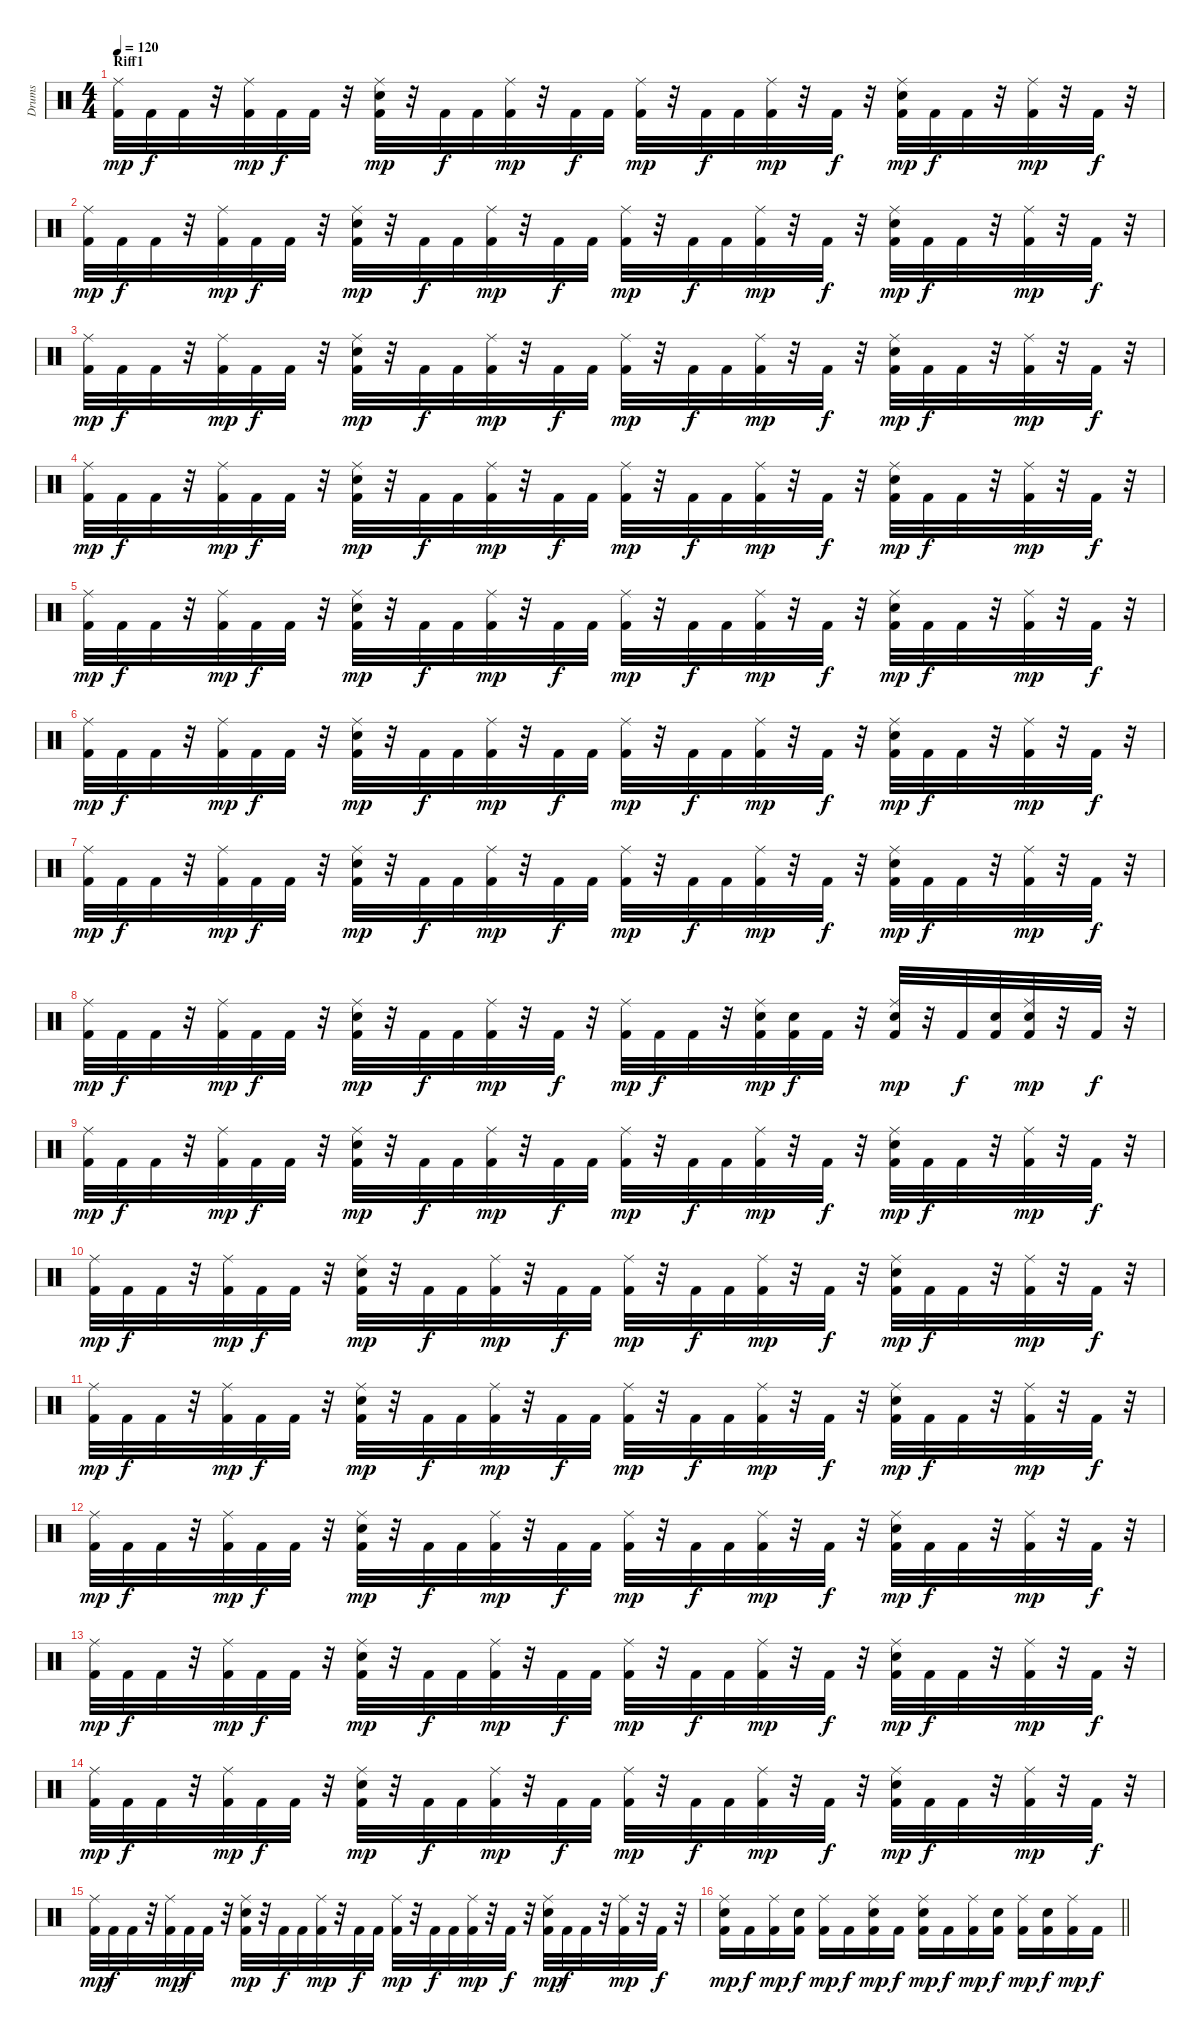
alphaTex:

\track ("Drums" "Drums") {instrument percussion}
\staff {score}
\articulation defaults
\ts (4 4)
\section ("" "Riff1")
\tempo 120
\clef neutral
\ks c
("Kick (hit) 2" "Ride (middle)").32{dy mp} "Kick (hit) 2".32{dy f} "Kick (hit) 2".32 r.32 ("Kick (hit) 2" "Ride (middle)").32{dy mp} "Kick (hit) 2".32{dy f} "Kick (hit) 2".32 r.32 ("Kick (hit) 2" "Ride (middle)" "Snare (hit) 2").32{dy mp} r.32 "Kick (hit) 2".32{dy f} "Kick (hit) 2".32 ("Kick (hit) 2" "Ride (middle)").32{dy mp} r.32 "Kick (hit) 2".32{dy f} "Kick (hit) 2".32 ("Kick (hit) 2" "Ride (middle)").32{dy mp} r.32 "Kick (hit) 2".32{dy f} "Kick (hit) 2".32 ("Kick (hit) 2" "Ride (middle)").32{dy mp} r.32 "Kick (hit) 2".32{dy f} r.32 ("Kick (hit) 2" "Ride (middle)" "Snare (hit) 2").32{dy mp} "Kick (hit) 2".32{dy f} "Kick (hit) 2".32 r.32 ("Kick (hit) 2" "Ride (middle)").32{dy mp} r.32 "Kick (hit) 2".32{dy f} r.32 |
("Kick (hit) 2" "Ride (middle)").32{dy mp} "Kick (hit) 2".32{dy f} "Kick (hit) 2".32 r.32 ("Kick (hit) 2" "Ride (middle)").32{dy mp} "Kick (hit) 2".32{dy f} "Kick (hit) 2".32 r.32 ("Kick (hit) 2" "Ride (middle)" "Snare (hit) 2").32{dy mp} r.32 "Kick (hit) 2".32{dy f} "Kick (hit) 2".32 ("Kick (hit) 2" "Ride (middle)").32{dy mp} r.32 "Kick (hit) 2".32{dy f} "Kick (hit) 2".32 ("Kick (hit) 2" "Ride (middle)").32{dy mp} r.32 "Kick (hit) 2".32{dy f} "Kick (hit) 2".32 ("Kick (hit) 2" "Ride (middle)").32{dy mp} r.32 "Kick (hit) 2".32{dy f} r.32 ("Kick (hit) 2" "Ride (middle)" "Snare (hit) 2").32{dy mp} "Kick (hit) 2".32{dy f} "Kick (hit) 2".32 r.32 ("Kick (hit) 2" "Ride (middle)").32{dy mp} r.32 "Kick (hit) 2".32{dy f} r.32 |
("Kick (hit) 2" "Ride (middle)").32{dy mp} "Kick (hit) 2".32{dy f} "Kick (hit) 2".32 r.32 ("Kick (hit) 2" "Ride (middle)").32{dy mp} "Kick (hit) 2".32{dy f} "Kick (hit) 2".32 r.32 ("Kick (hit) 2" "Ride (middle)" "Snare (hit) 2").32{dy mp} r.32 "Kick (hit) 2".32{dy f} "Kick (hit) 2".32 ("Kick (hit) 2" "Ride (middle)").32{dy mp} r.32 "Kick (hit) 2".32{dy f} "Kick (hit) 2".32 ("Kick (hit) 2" "Ride (middle)").32{dy mp} r.32 "Kick (hit) 2".32{dy f} "Kick (hit) 2".32 ("Kick (hit) 2" "Ride (middle)").32{dy mp} r.32 "Kick (hit) 2".32{dy f} r.32 ("Kick (hit) 2" "Ride (middle)" "Snare (hit) 2").32{dy mp} "Kick (hit) 2".32{dy f} "Kick (hit) 2".32 r.32 ("Kick (hit) 2" "Ride (middle)").32{dy mp} r.32 "Kick (hit) 2".32{dy f} r.32 |
("Kick (hit) 2" "Ride (middle)").32{dy mp} "Kick (hit) 2".32{dy f} "Kick (hit) 2".32 r.32 ("Kick (hit) 2" "Ride (middle)").32{dy mp} "Kick (hit) 2".32{dy f} "Kick (hit) 2".32 r.32 ("Kick (hit) 2" "Ride (middle)" "Snare (hit) 2").32{dy mp} r.32 "Kick (hit) 2".32{dy f} "Kick (hit) 2".32 ("Kick (hit) 2" "Ride (middle)").32{dy mp} r.32 "Kick (hit) 2".32{dy f} "Kick (hit) 2".32 ("Kick (hit) 2" "Ride (middle)").32{dy mp} r.32 "Kick (hit) 2".32{dy f} "Kick (hit) 2".32 ("Kick (hit) 2" "Ride (middle)").32{dy mp} r.32 "Kick (hit) 2".32{dy f} r.32 ("Kick (hit) 2" "Ride (middle)" "Snare (hit) 2").32{dy mp} "Kick (hit) 2".32{dy f} "Kick (hit) 2".32 r.32 ("Kick (hit) 2" "Ride (middle)").32{dy mp} r.32 "Kick (hit) 2".32{dy f} r.32 |
("Kick (hit) 2" "Ride (middle)").32{dy mp} "Kick (hit) 2".32{dy f} "Kick (hit) 2".32 r.32 ("Kick (hit) 2" "Ride (middle)").32{dy mp} "Kick (hit) 2".32{dy f} "Kick (hit) 2".32 r.32 ("Kick (hit) 2" "Ride (middle)" "Snare (hit) 2").32{dy mp} r.32 "Kick (hit) 2".32{dy f} "Kick (hit) 2".32 ("Kick (hit) 2" "Ride (middle)").32{dy mp} r.32 "Kick (hit) 2".32{dy f} "Kick (hit) 2".32 ("Kick (hit) 2" "Ride (middle)").32{dy mp} r.32 "Kick (hit) 2".32{dy f} "Kick (hit) 2".32 ("Kick (hit) 2" "Ride (middle)").32{dy mp} r.32 "Kick (hit) 2".32{dy f} r.32 ("Kick (hit) 2" "Ride (middle)" "Snare (hit) 2").32{dy mp} "Kick (hit) 2".32{dy f} "Kick (hit) 2".32 r.32 ("Kick (hit) 2" "Ride (middle)").32{dy mp} r.32 "Kick (hit) 2".32{dy f} r.32 |
("Kick (hit) 2" "Ride (middle)").32{dy mp} "Kick (hit) 2".32{dy f} "Kick (hit) 2".32 r.32 ("Kick (hit) 2" "Ride (middle)").32{dy mp} "Kick (hit) 2".32{dy f} "Kick (hit) 2".32 r.32 ("Kick (hit) 2" "Ride (middle)" "Snare (hit) 2").32{dy mp} r.32 "Kick (hit) 2".32{dy f} "Kick (hit) 2".32 ("Kick (hit) 2" "Ride (middle)").32{dy mp} r.32 "Kick (hit) 2".32{dy f} "Kick (hit) 2".32 ("Kick (hit) 2" "Ride (middle)").32{dy mp} r.32 "Kick (hit) 2".32{dy f} "Kick (hit) 2".32 ("Kick (hit) 2" "Ride (middle)").32{dy mp} r.32 "Kick (hit) 2".32{dy f} r.32 ("Kick (hit) 2" "Ride (middle)" "Snare (hit) 2").32{dy mp} "Kick (hit) 2".32{dy f} "Kick (hit) 2".32 r.32 ("Kick (hit) 2" "Ride (middle)").32{dy mp} r.32 "Kick (hit) 2".32{dy f} r.32 |
("Kick (hit) 2" "Ride (middle)").32{dy mp} "Kick (hit) 2".32{dy f} "Kick (hit) 2".32 r.32 ("Kick (hit) 2" "Ride (middle)").32{dy mp} "Kick (hit) 2".32{dy f} "Kick (hit) 2".32 r.32 ("Kick (hit) 2" "Ride (middle)" "Snare (hit) 2").32{dy mp} r.32 "Kick (hit) 2".32{dy f} "Kick (hit) 2".32 ("Kick (hit) 2" "Ride (middle)").32{dy mp} r.32 "Kick (hit) 2".32{dy f} "Kick (hit) 2".32 ("Kick (hit) 2" "Ride (middle)").32{dy mp} r.32 "Kick (hit) 2".32{dy f} "Kick (hit) 2".32 ("Kick (hit) 2" "Ride (middle)").32{dy mp} r.32 "Kick (hit) 2".32{dy f} r.32 ("Kick (hit) 2" "Ride (middle)" "Snare (hit) 2").32{dy mp} "Kick (hit) 2".32{dy f} "Kick (hit) 2".32 r.32 ("Kick (hit) 2" "Ride (middle)").32{dy mp} r.32 "Kick (hit) 2".32{dy f} r.32 |
("Kick (hit) 2" "Ride (middle)").32{dy mp} "Kick (hit) 2".32{dy f} "Kick (hit) 2".32 r.32 ("Kick (hit) 2" "Ride (middle)").32{dy mp} "Kick (hit) 2".32{dy f} "Kick (hit) 2".32 r.32 ("Kick (hit) 2" "Ride (middle)" "Snare (hit) 2").32{dy mp} r.32 "Kick (hit) 2".32{dy f} "Kick (hit) 2".32 ("Kick (hit) 2" "Ride (middle)").32{dy mp} r.32 "Kick (hit) 2".32{dy f} r.32 ("Kick (hit) 2" "Ride (middle)").32{dy mp} "Kick (hit) 2".32{dy f} "Kick (hit) 2".32 r.32 ("Kick (hit) 2" "Ride (middle)" "Snare (hit) 2").32{dy mp} ("Kick (hit) 2" "Snare (hit) 2").32{dy f} "Kick (hit) 2".32 r.32 ("Kick (hit) 2" "Ride (middle)" "Snare (hit) 2").32{dy mp} r.32 "Kick (hit) 2".32{dy f} ("Kick (hit) 2" "Snare (hit) 2").32 ("Kick (hit) 2" "Ride (middle)" "Snare (hit) 2").32{dy mp} r.32 "Kick (hit) 2".32{dy f} r.32 |
("Kick (hit) 2" "Ride (middle)").32{dy mp} "Kick (hit) 2".32{dy f} "Kick (hit) 2".32 r.32 ("Kick (hit) 2" "Ride (middle)").32{dy mp} "Kick (hit) 2".32{dy f} "Kick (hit) 2".32 r.32 ("Kick (hit) 2" "Ride (middle)" "Snare (hit) 2").32{dy mp} r.32 "Kick (hit) 2".32{dy f} "Kick (hit) 2".32 ("Kick (hit) 2" "Ride (middle)").32{dy mp} r.32 "Kick (hit) 2".32{dy f} "Kick (hit) 2".32 ("Kick (hit) 2" "Ride (middle)").32{dy mp} r.32 "Kick (hit) 2".32{dy f} "Kick (hit) 2".32 ("Kick (hit) 2" "Ride (middle)").32{dy mp} r.32 "Kick (hit) 2".32{dy f} r.32 ("Kick (hit) 2" "Ride (middle)" "Snare (hit) 2").32{dy mp} "Kick (hit) 2".32{dy f} "Kick (hit) 2".32 r.32 ("Kick (hit) 2" "Ride (middle)").32{dy mp} r.32 "Kick (hit) 2".32{dy f} r.32 |
("Kick (hit) 2" "Ride (middle)").32{dy mp} "Kick (hit) 2".32{dy f} "Kick (hit) 2".32 r.32 ("Kick (hit) 2" "Ride (middle)").32{dy mp} "Kick (hit) 2".32{dy f} "Kick (hit) 2".32 r.32 ("Kick (hit) 2" "Ride (middle)" "Snare (hit) 2").32{dy mp} r.32 "Kick (hit) 2".32{dy f} "Kick (hit) 2".32 ("Kick (hit) 2" "Ride (middle)").32{dy mp} r.32 "Kick (hit) 2".32{dy f} "Kick (hit) 2".32 ("Kick (hit) 2" "Ride (middle)").32{dy mp} r.32 "Kick (hit) 2".32{dy f} "Kick (hit) 2".32 ("Kick (hit) 2" "Ride (middle)").32{dy mp} r.32 "Kick (hit) 2".32{dy f} r.32 ("Kick (hit) 2" "Ride (middle)" "Snare (hit) 2").32{dy mp} "Kick (hit) 2".32{dy f} "Kick (hit) 2".32 r.32 ("Kick (hit) 2" "Ride (middle)").32{dy mp} r.32 "Kick (hit) 2".32{dy f} r.32 |
("Kick (hit) 2" "Ride (middle)").32{dy mp} "Kick (hit) 2".32{dy f} "Kick (hit) 2".32 r.32 ("Kick (hit) 2" "Ride (middle)").32{dy mp} "Kick (hit) 2".32{dy f} "Kick (hit) 2".32 r.32 ("Kick (hit) 2" "Ride (middle)" "Snare (hit) 2").32{dy mp} r.32 "Kick (hit) 2".32{dy f} "Kick (hit) 2".32 ("Kick (hit) 2" "Ride (middle)").32{dy mp} r.32 "Kick (hit) 2".32{dy f} "Kick (hit) 2".32 ("Kick (hit) 2" "Ride (middle)").32{dy mp} r.32 "Kick (hit) 2".32{dy f} "Kick (hit) 2".32 ("Kick (hit) 2" "Ride (middle)").32{dy mp} r.32 "Kick (hit) 2".32{dy f} r.32 ("Kick (hit) 2" "Ride (middle)" "Snare (hit) 2").32{dy mp} "Kick (hit) 2".32{dy f} "Kick (hit) 2".32 r.32 ("Kick (hit) 2" "Ride (middle)").32{dy mp} r.32 "Kick (hit) 2".32{dy f} r.32 |
("Kick (hit) 2" "Ride (middle)").32{dy mp} "Kick (hit) 2".32{dy f} "Kick (hit) 2".32 r.32 ("Kick (hit) 2" "Ride (middle)").32{dy mp} "Kick (hit) 2".32{dy f} "Kick (hit) 2".32 r.32 ("Kick (hit) 2" "Ride (middle)" "Snare (hit) 2").32{dy mp} r.32 "Kick (hit) 2".32{dy f} "Kick (hit) 2".32 ("Kick (hit) 2" "Ride (middle)").32{dy mp} r.32 "Kick (hit) 2".32{dy f} "Kick (hit) 2".32 ("Kick (hit) 2" "Ride (middle)").32{dy mp} r.32 "Kick (hit) 2".32{dy f} "Kick (hit) 2".32 ("Kick (hit) 2" "Ride (middle)").32{dy mp} r.32 "Kick (hit) 2".32{dy f} r.32 ("Kick (hit) 2" "Ride (middle)" "Snare (hit) 2").32{dy mp} "Kick (hit) 2".32{dy f} "Kick (hit) 2".32 r.32 ("Kick (hit) 2" "Ride (middle)").32{dy mp} r.32 "Kick (hit) 2".32{dy f} r.32 |
("Kick (hit) 2" "Ride (middle)").32{dy mp} "Kick (hit) 2".32{dy f} "Kick (hit) 2".32 r.32 ("Kick (hit) 2" "Ride (middle)").32{dy mp} "Kick (hit) 2".32{dy f} "Kick (hit) 2".32 r.32 ("Kick (hit) 2" "Ride (middle)" "Snare (hit) 2").32{dy mp} r.32 "Kick (hit) 2".32{dy f} "Kick (hit) 2".32 ("Kick (hit) 2" "Ride (middle)").32{dy mp} r.32 "Kick (hit) 2".32{dy f} "Kick (hit) 2".32 ("Kick (hit) 2" "Ride (middle)").32{dy mp} r.32 "Kick (hit) 2".32{dy f} "Kick (hit) 2".32 ("Kick (hit) 2" "Ride (middle)").32{dy mp} r.32 "Kick (hit) 2".32{dy f} r.32 ("Kick (hit) 2" "Ride (middle)" "Snare (hit) 2").32{dy mp} "Kick (hit) 2".32{dy f} "Kick (hit) 2".32 r.32 ("Kick (hit) 2" "Ride (middle)").32{dy mp} r.32 "Kick (hit) 2".32{dy f} r.32 |
("Kick (hit) 2" "Ride (middle)").32{dy mp} "Kick (hit) 2".32{dy f} "Kick (hit) 2".32 r.32 ("Kick (hit) 2" "Ride (middle)").32{dy mp} "Kick (hit) 2".32{dy f} "Kick (hit) 2".32 r.32 ("Kick (hit) 2" "Ride (middle)" "Snare (hit) 2").32{dy mp} r.32 "Kick (hit) 2".32{dy f} "Kick (hit) 2".32 ("Kick (hit) 2" "Ride (middle)").32{dy mp} r.32 "Kick (hit) 2".32{dy f} "Kick (hit) 2".32 ("Kick (hit) 2" "Ride (middle)").32{dy mp} r.32 "Kick (hit) 2".32{dy f} "Kick (hit) 2".32 ("Kick (hit) 2" "Ride (middle)").32{dy mp} r.32 "Kick (hit) 2".32{dy f} r.32 ("Kick (hit) 2" "Ride (middle)" "Snare (hit) 2").32{dy mp} "Kick (hit) 2".32{dy f} "Kick (hit) 2".32 r.32 ("Kick (hit) 2" "Ride (middle)").32{dy mp} r.32 "Kick (hit) 2".32{dy f} r.32 |
("Kick (hit) 2" "Ride (middle)").32{dy mp} "Kick (hit) 2".32{dy f} "Kick (hit) 2".32 r.32 ("Kick (hit) 2" "Ride (middle)").32{dy mp} "Kick (hit) 2".32{dy f} "Kick (hit) 2".32 r.32 ("Kick (hit) 2" "Ride (middle)" "Snare (hit) 2").32{dy mp} r.32 "Kick (hit) 2".32{dy f} "Kick (hit) 2".32 ("Kick (hit) 2" "Ride (middle)").32{dy mp} r.32 "Kick (hit) 2".32{dy f} "Kick (hit) 2".32 ("Kick (hit) 2" "Ride (middle)").32{dy mp} r.32 "Kick (hit) 2".32{dy f} "Kick (hit) 2".32 ("Kick (hit) 2" "Ride (middle)").32{dy mp} r.32 "Kick (hit) 2".32{dy f} r.32 ("Kick (hit) 2" "Ride (middle)" "Snare (hit) 2").32{dy mp} "Kick (hit) 2".32{dy f} "Kick (hit) 2".32 r.32 ("Kick (hit) 2" "Ride (middle)").32{dy mp} r.32 "Kick (hit) 2".32{dy f} r.32 |
\barLineRight lightlight
("Kick (hit) 2" "Ride (middle)" "Snare (hit) 2").16{dy mp} "Kick (hit) 2".16{dy f} ("Kick (hit) 2" "Ride (middle)").16{dy mp} ("Kick (hit) 2" "Snare (hit) 2").16{dy f} ("Kick (hit) 2" "Ride (middle)").16{dy mp} "Kick (hit) 2".16{dy f} ("Kick (hit) 2" "Ride (middle)" "Snare (hit) 2").16{dy mp} "Kick (hit) 2".16{dy f} ("Kick (hit) 2" "Ride (middle)" "Snare (hit) 2").16{dy mp} "Kick (hit) 2".16{dy f} ("Kick (hit) 2" "Ride (middle)").16{dy mp} ("Kick (hit) 2" "Snare (hit) 2").16{dy f} ("Kick (hit) 2" "Ride (middle)").16{dy mp} ("Kick (hit) 2" "Snare (hit) 2").16{dy f} ("Kick (hit) 2" "Ride (middle)").16{dy mp} "Kick (hit) 2".16{dy f}
